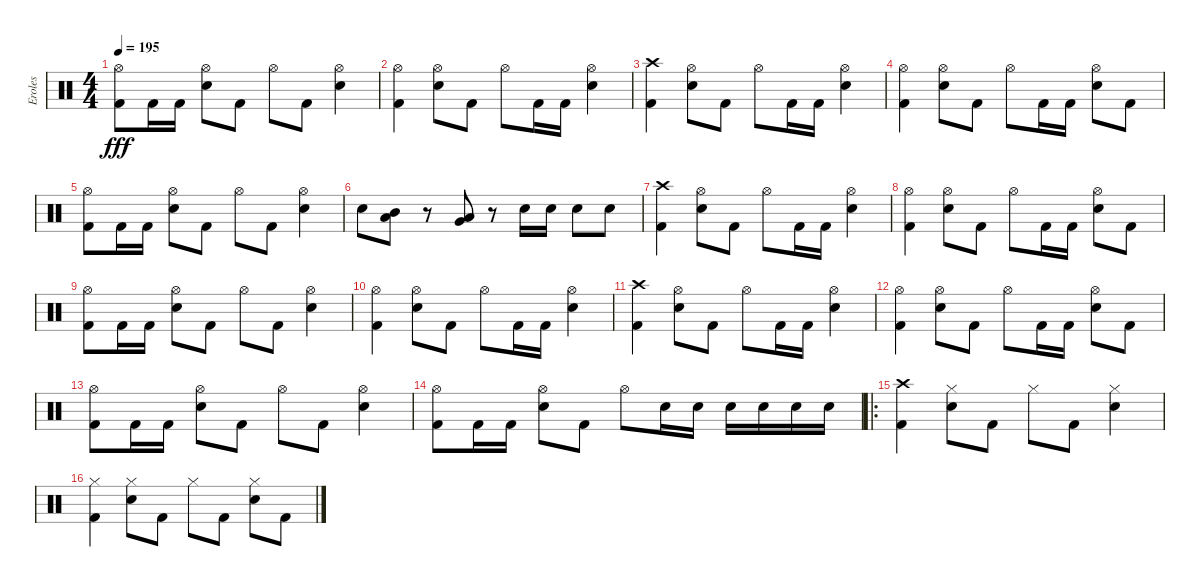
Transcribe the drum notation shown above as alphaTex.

\track ("Eroles" "Eroles") {instrument percussion}
\staff {score}
\articulation defaults
\ts (4 4)
\tempo 195
\clef neutral
\ks c
("Hi-Hat (open)" "Kick (hit) 2").8{dy fff} "Kick (hit) 2".16 "Kick (hit) 2".16 ("Hi-Hat (open)" "Snare (hit) 2").8 "Kick (hit) 2".8 "Hi-Hat (open)".8 "Kick (hit) 2".8 ("Hi-Hat (open)" "Snare (hit) 2").4 |
("Hi-Hat (open)" "Kick (hit) 2").4 ("Hi-Hat (open)" "Snare (hit) 2").8 "Kick (hit) 2".8 "Hi-Hat (open)".8 "Kick (hit) 2".16 "Kick (hit) 2".16 ("Hi-Hat (open)" "Snare (hit) 2").4 |
("Crash high (hit)" "Kick (hit) 2").4 ("Hi-Hat (open)" "Snare (hit) 2").8 "Kick (hit) 2".8 "Hi-Hat (open)".8 "Kick (hit) 2".16 "Kick (hit) 2".16 ("Hi-Hat (open)" "Snare (hit) 2").4 |
("Hi-Hat (open)" "Kick (hit) 2").4 ("Hi-Hat (open)" "Snare (hit) 2").8 "Kick (hit) 2".8 "Hi-Hat (open)".8 "Kick (hit) 2".16 "Kick (hit) 2".16 ("Hi-Hat (open)" "Snare (hit) 2").8 "Kick (hit) 2".8 |
("Hi-Hat (open)" "Kick (hit) 2").8 "Kick (hit) 2".16 "Kick (hit) 2".16 ("Hi-Hat (open)" "Snare (hit) 2").8 "Kick (hit) 2".8 "Hi-Hat (open)".8 "Kick (hit) 2".8 ("Hi-Hat (open)" "Snare (hit) 2").4 |
"Snare (hit) 2".8 ("Mid Tom (hit)" "Low Tom (hit)").8 r.8 ("Low Tom (hit)" "Very Low Tom (hit)").8 r.8 "Snare (hit) 2".16 "Snare (hit) 2".16 "Snare (hit) 2".8 "Snare (hit) 2".8 |
("Crash high (hit)" "Kick (hit) 2").4 ("Hi-Hat (open)" "Snare (hit) 2").8 "Kick (hit) 2".8 "Hi-Hat (open)".8 "Kick (hit) 2".16 "Kick (hit) 2".16 ("Hi-Hat (open)" "Snare (hit) 2").4 |
("Hi-Hat (open)" "Kick (hit) 2").4 ("Hi-Hat (open)" "Snare (hit) 2").8 "Kick (hit) 2".8 "Hi-Hat (open)".8 "Kick (hit) 2".16 "Kick (hit) 2".16 ("Hi-Hat (open)" "Snare (hit) 2").8 "Kick (hit) 2".8 |
("Hi-Hat (open)" "Kick (hit) 2").8 "Kick (hit) 2".16 "Kick (hit) 2".16 ("Hi-Hat (open)" "Snare (hit) 2").8 "Kick (hit) 2".8 "Hi-Hat (open)".8 "Kick (hit) 2".8 ("Hi-Hat (open)" "Snare (hit) 2").4 |
("Hi-Hat (open)" "Kick (hit) 2").4 ("Hi-Hat (open)" "Snare (hit) 2").8 "Kick (hit) 2".8 "Hi-Hat (open)".8 "Kick (hit) 2".16 "Kick (hit) 2".16 ("Hi-Hat (open)" "Snare (hit) 2").4 |
("Crash high (hit)" "Kick (hit) 2").4 ("Hi-Hat (open)" "Snare (hit) 2").8 "Kick (hit) 2".8 "Hi-Hat (open)".8 "Kick (hit) 2".16 "Kick (hit) 2".16 ("Hi-Hat (open)" "Snare (hit) 2").4 |
("Hi-Hat (open)" "Kick (hit) 2").4 ("Hi-Hat (open)" "Snare (hit) 2").8 "Kick (hit) 2".8 "Hi-Hat (open)".8 "Kick (hit) 2".16 "Kick (hit) 2".16 ("Hi-Hat (open)" "Snare (hit) 2").8 "Kick (hit) 2".8 |
("Hi-Hat (open)" "Kick (hit) 2").8 "Kick (hit) 2".16 "Kick (hit) 2".16 ("Hi-Hat (open)" "Snare (hit) 2").8 "Kick (hit) 2".8 "Hi-Hat (open)".8 "Kick (hit) 2".8 ("Hi-Hat (open)" "Snare (hit) 2").4 |
("Hi-Hat (open)" "Kick (hit) 2").8 "Kick (hit) 2".16 "Kick (hit) 2".16 ("Hi-Hat (open)" "Snare (hit) 2").8 "Kick (hit) 2".8 "Hi-Hat (open)".8 "Snare (hit) 2".16 "Snare (hit) 2".16 "Snare (hit) 2".16 "Snare (hit) 2".16 "Snare (hit) 2".16 "Snare (hit) 2".16 |
\ro
("Crash high (hit)" "Kick (hit) 2").4 ("Hi-Hat (closed)" "Snare (hit) 2").8 "Kick (hit) 2".8 "Hi-Hat (closed)".8 "Kick (hit) 2".8 ("Hi-Hat (closed)" "Snare (hit) 2").4 |
("Hi-Hat (closed)" "Kick (hit) 2").4 ("Hi-Hat (closed)" "Snare (hit) 2").8 "Kick (hit) 2".8 "Hi-Hat (closed)".8 "Kick (hit) 2".8 ("Hi-Hat (closed)" "Snare (hit) 2").8 "Kick (hit) 2".8
